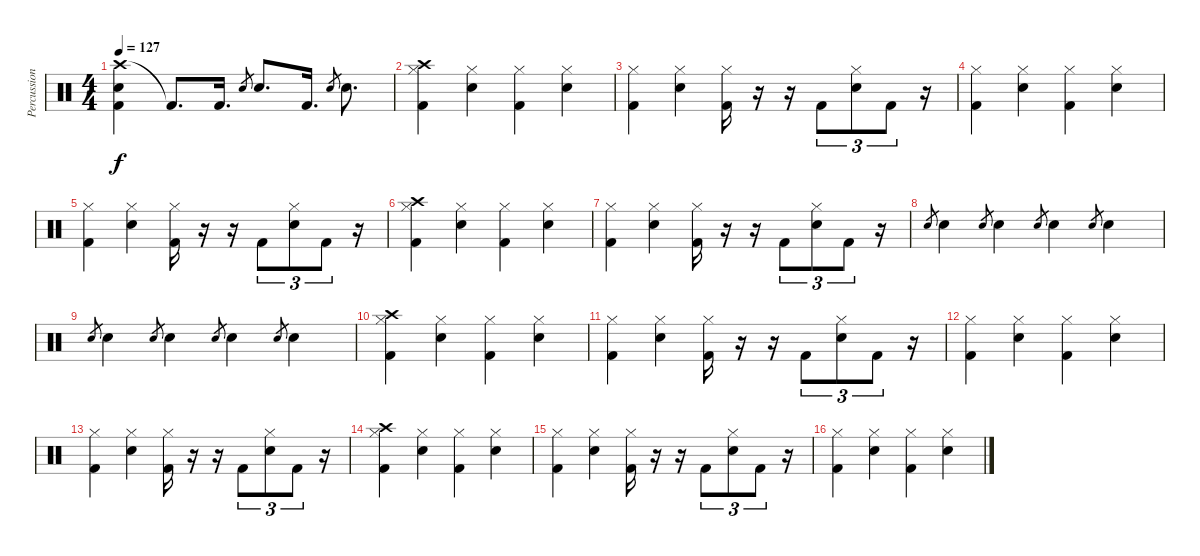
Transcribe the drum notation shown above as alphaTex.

\track ("Percussions" "Percussion") {instrument percussion}
\staff {score}
\articulation defaults
\ts (4 4)
\tempo 127
\clef neutral
\ks c
("Crash high (hit)" "Electric Snare (hit)" "Kick (hit) 2").4{dy f} "Kick (hit) 2"{t}.8{d} "Kick (hit) 2".16{d} "Electric Snare (hit)".8{gr} "Electric Snare (hit)".8{d} "Kick (hit) 2".16{d} "Electric Snare (hit)".8{gr} "Electric Snare (hit)".8{d} |
("Crash high (hit)" "Hi-Hat (closed)" "Kick (hit) 2").4 ("Hi-Hat (closed)" "Electric Snare (hit)").4 ("Hi-Hat (closed)" "Kick (hit) 2").4 ("Hi-Hat (closed)" "Electric Snare (hit)").4 |
("Hi-Hat (closed)" "Kick (hit) 2").4 ("Hi-Hat (closed)" "Electric Snare (hit)").4 ("Hi-Hat (closed)" "Kick (hit) 2").16 r.16 r.16 "Kick (hit) 2".8{tu (3 2)} ("Hi-Hat (closed)" "Electric Snare (hit)").8{tu (3 2)} "Kick (hit) 2".8{tu (3 2)} r.16 |
("Hi-Hat (closed)" "Kick (hit) 2").4 ("Hi-Hat (closed)" "Electric Snare (hit)").4 ("Hi-Hat (closed)" "Kick (hit) 2").4 ("Hi-Hat (closed)" "Electric Snare (hit)").4 |
("Hi-Hat (closed)" "Kick (hit) 2").4 ("Hi-Hat (closed)" "Electric Snare (hit)").4 ("Hi-Hat (closed)" "Kick (hit) 2").16 r.16 r.16 "Kick (hit) 2".8{tu (3 2)} ("Hi-Hat (closed)" "Electric Snare (hit)").8{tu (3 2)} "Kick (hit) 2".8{tu (3 2)} r.16 |
("Crash high (hit)" "Hi-Hat (closed)" "Kick (hit) 2").4 ("Hi-Hat (closed)" "Electric Snare (hit)").4 ("Hi-Hat (closed)" "Kick (hit) 2").4 ("Hi-Hat (closed)" "Electric Snare (hit)").4 |
("Hi-Hat (closed)" "Kick (hit) 2").4 ("Hi-Hat (closed)" "Electric Snare (hit)").4 ("Hi-Hat (closed)" "Kick (hit) 2").16 r.16 r.16 "Kick (hit) 2".8{tu (3 2)} ("Hi-Hat (closed)" "Electric Snare (hit)").8{tu (3 2)} "Kick (hit) 2".8{tu (3 2)} r.16 |
"Electric Snare (hit)".8{gr} "Electric Snare (hit)".4 "Electric Snare (hit)".8{gr} "Electric Snare (hit)".4 "Electric Snare (hit)".8{gr} "Electric Snare (hit)".4 "Electric Snare (hit)".8{gr} "Electric Snare (hit)".4 |
"Electric Snare (hit)".8{gr} "Electric Snare (hit)".4 "Electric Snare (hit)".8{gr} "Electric Snare (hit)".4 "Electric Snare (hit)".8{gr} "Electric Snare (hit)".4 "Electric Snare (hit)".8{gr} "Electric Snare (hit)".4 |
("Crash high (hit)" "Hi-Hat (closed)" "Kick (hit) 2").4 ("Hi-Hat (closed)" "Electric Snare (hit)").4 ("Hi-Hat (closed)" "Kick (hit) 2").4 ("Hi-Hat (closed)" "Electric Snare (hit)").4 |
("Hi-Hat (closed)" "Kick (hit) 2").4 ("Hi-Hat (closed)" "Electric Snare (hit)").4 ("Hi-Hat (closed)" "Kick (hit) 2").16 r.16 r.16 "Kick (hit) 2".8{tu (3 2)} ("Hi-Hat (closed)" "Electric Snare (hit)").8{tu (3 2)} "Kick (hit) 2".8{tu (3 2)} r.16 |
("Hi-Hat (closed)" "Kick (hit) 2").4 ("Hi-Hat (closed)" "Electric Snare (hit)").4 ("Hi-Hat (closed)" "Kick (hit) 2").4 ("Hi-Hat (closed)" "Electric Snare (hit)").4 |
("Hi-Hat (closed)" "Kick (hit) 2").4 ("Hi-Hat (closed)" "Electric Snare (hit)").4 ("Hi-Hat (closed)" "Kick (hit) 2").16 r.16 r.16 "Kick (hit) 2".8{tu (3 2)} ("Hi-Hat (closed)" "Electric Snare (hit)").8{tu (3 2)} "Kick (hit) 2".8{tu (3 2)} r.16 |
("Crash high (hit)" "Hi-Hat (closed)" "Kick (hit) 2").4 ("Hi-Hat (closed)" "Electric Snare (hit)").4 ("Hi-Hat (closed)" "Kick (hit) 2").4 ("Hi-Hat (closed)" "Electric Snare (hit)").4 |
("Hi-Hat (closed)" "Kick (hit) 2").4 ("Hi-Hat (closed)" "Electric Snare (hit)").4 ("Hi-Hat (closed)" "Kick (hit) 2").16 r.16 r.16 "Kick (hit) 2".8{tu (3 2)} ("Hi-Hat (closed)" "Electric Snare (hit)").8{tu (3 2)} "Kick (hit) 2".8{tu (3 2)} r.16 |
("Hi-Hat (closed)" "Kick (hit) 2").4 ("Hi-Hat (closed)" "Electric Snare (hit)").4 ("Hi-Hat (closed)" "Kick (hit) 2").4 ("Hi-Hat (closed)" "Electric Snare (hit)").4
